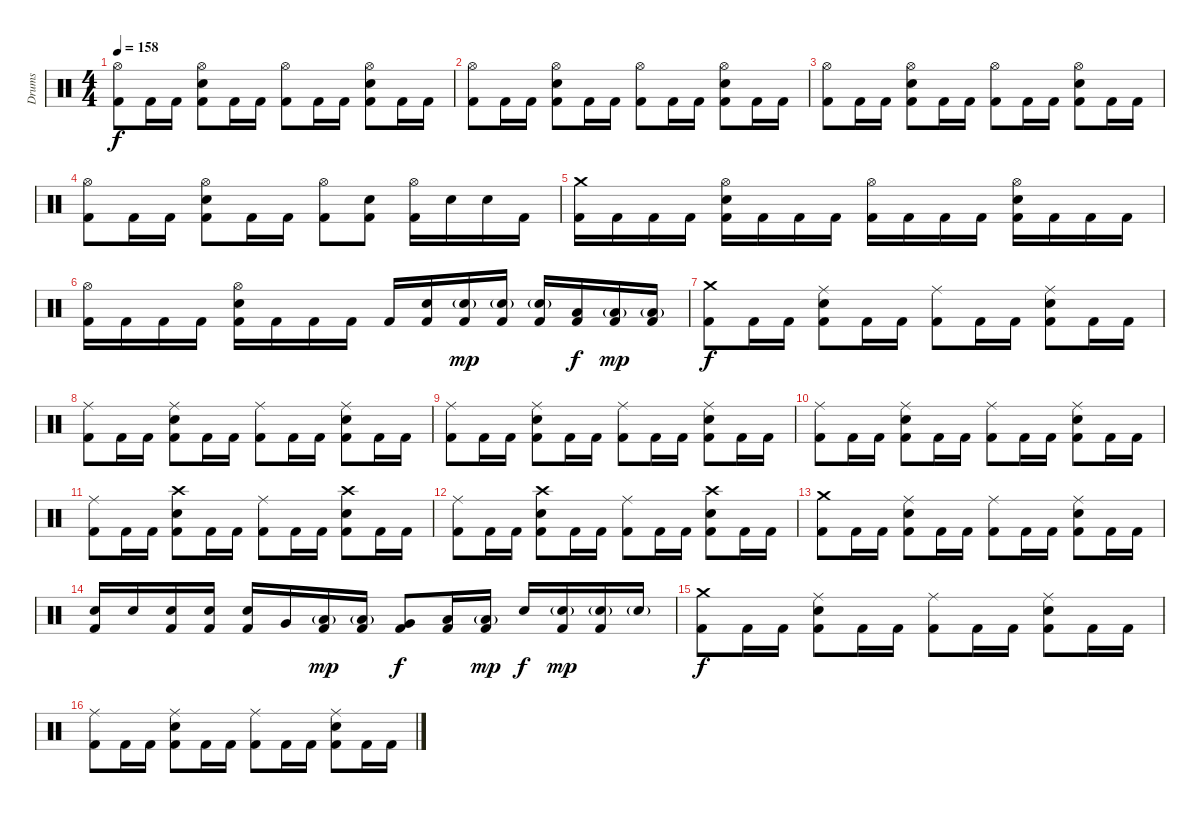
\track ("Drums" "Drums") {instrument percussion}
\staff {score}
\articulation defaults
\ts (4 4)
\tempo 158
\clef neutral
\ks c
("Hi-Hat (open)" "Kick (hit) 2").8{dy f} "Kick (hit) 2".16 "Kick (hit) 2".16 ("Hi-Hat (open)" "Electric Snare (hit)" "Kick (hit) 2").8 "Kick (hit) 2".16 "Kick (hit) 2".16 ("Hi-Hat (open)" "Kick (hit) 2").8 "Kick (hit) 2".16 "Kick (hit) 2".16 ("Hi-Hat (open)" "Electric Snare (hit)" "Kick (hit) 2").8 "Kick (hit) 2".16 "Kick (hit) 2".16 |
("Hi-Hat (open)" "Kick (hit) 2").8 "Kick (hit) 2".16 "Kick (hit) 2".16 ("Hi-Hat (open)" "Electric Snare (hit)" "Kick (hit) 2").8 "Kick (hit) 2".16 "Kick (hit) 2".16 ("Hi-Hat (open)" "Kick (hit) 2").8 "Kick (hit) 2".16 "Kick (hit) 2".16 ("Hi-Hat (open)" "Electric Snare (hit)" "Kick (hit) 2").8 "Kick (hit) 2".16 "Kick (hit) 2".16 |
("Hi-Hat (open)" "Kick (hit) 2").8 "Kick (hit) 2".16 "Kick (hit) 2".16 ("Hi-Hat (open)" "Electric Snare (hit)" "Kick (hit) 2").8 "Kick (hit) 2".16 "Kick (hit) 2".16 ("Hi-Hat (open)" "Kick (hit) 2").8 "Kick (hit) 2".16 "Kick (hit) 2".16 ("Hi-Hat (open)" "Electric Snare (hit)" "Kick (hit) 2").8 "Kick (hit) 2".16 "Kick (hit) 2".16 |
("Hi-Hat (open)" "Kick (hit) 2").8 "Kick (hit) 2".16 "Kick (hit) 2".16 ("Hi-Hat (open)" "Electric Snare (hit)" "Kick (hit) 2").8 "Kick (hit) 2".16 "Kick (hit) 2".16 ("Hi-Hat (open)" "Kick (hit) 2").8 ("Electric Snare (hit)" "Kick (hit) 2").8 ("Hi-Hat (open)" "Kick (hit) 2").16 "Electric Snare (hit)".16 "Electric Snare (hit)".16 "Kick (hit) 2".16 |
("Crash medium (hit)" "Kick (hit) 2").16 "Kick (hit) 2".16 "Kick (hit) 2".16 "Kick (hit) 2".16 ("Hi-Hat (open)" "Electric Snare (hit)" "Kick (hit) 2").16 "Kick (hit) 2".16 "Kick (hit) 2".16 "Kick (hit) 2".16 ("Hi-Hat (open)" "Kick (hit) 2").16 "Kick (hit) 2".16 "Kick (hit) 2".16 "Kick (hit) 2".16 ("Hi-Hat (open)" "Electric Snare (hit)" "Kick (hit) 2").16 "Kick (hit) 2".16 "Kick (hit) 2".16 "Kick (hit) 2".16 |
("Hi-Hat (open)" "Kick (hit) 2").16 "Kick (hit) 2".16 "Kick (hit) 2".16 "Kick (hit) 2".16 ("Hi-Hat (open)" "Electric Snare (hit)" "Kick (hit) 2").16 "Kick (hit) 2".16 "Kick (hit) 2".16 "Kick (hit) 2".16 "Kick (hit) 2".16 ("Electric Snare (hit)" "Kick (hit) 2").16 ("Electric Snare (hit)"{g} "Kick (hit) 2").16{dy mp} ("Electric Snare (hit)"{g} "Kick (hit) 2").16 ("Electric Snare (hit)"{g} "Kick (hit) 2").16 ("Low Tom (hit)" "Kick (hit) 2").16{dy f} ("Low Tom (hit)"{g} "Kick (hit) 2").16{dy mp} ("Low Tom (hit)"{g} "Kick (hit) 2").16 |
\section ("" "")
("Crash medium (hit)" "Kick (hit) 2").8{dy f} "Kick (hit) 2".16 "Kick (hit) 2".16 ("Ride (middle)" "Electric Snare (hit)" "Kick (hit) 2").8 "Kick (hit) 2".16 "Kick (hit) 2".16 ("Ride (middle)" "Kick (hit) 2").8 "Kick (hit) 2".16 "Kick (hit) 2".16 ("Ride (middle)" "Electric Snare (hit)" "Kick (hit) 2").8 "Kick (hit) 2".16 "Kick (hit) 2".16 |
("Ride (middle)" "Kick (hit) 2").8 "Kick (hit) 2".16 "Kick (hit) 2".16 ("Ride (middle)" "Electric Snare (hit)" "Kick (hit) 2").8 "Kick (hit) 2".16 "Kick (hit) 2".16 ("Ride (middle)" "Kick (hit) 2").8 "Kick (hit) 2".16 "Kick (hit) 2".16 ("Ride (middle)" "Electric Snare (hit)" "Kick (hit) 2").8 "Kick (hit) 2".16 "Kick (hit) 2".16 |
("Ride (middle)" "Kick (hit) 2").8 "Kick (hit) 2".16 "Kick (hit) 2".16 ("Ride (middle)" "Electric Snare (hit)" "Kick (hit) 2").8 "Kick (hit) 2".16 "Kick (hit) 2".16 ("Ride (middle)" "Kick (hit) 2").8 "Kick (hit) 2".16 "Kick (hit) 2".16 ("Ride (middle)" "Electric Snare (hit)" "Kick (hit) 2").8 "Kick (hit) 2".16 "Kick (hit) 2".16 |
("Ride (middle)" "Kick (hit) 2").8 "Kick (hit) 2".16 "Kick (hit) 2".16 ("Ride (middle)" "Electric Snare (hit)" "Kick (hit) 2").8 "Kick (hit) 2".16 "Kick (hit) 2".16 ("Ride (middle)" "Kick (hit) 2").8 "Kick (hit) 2".16 "Kick (hit) 2".16 ("Ride (middle)" "Electric Snare (hit)" "Kick (hit) 2").8 "Kick (hit) 2".16 "Kick (hit) 2".16 |
("Ride (middle)" "Kick (hit) 2").8 "Kick (hit) 2".16 "Kick (hit) 2".16 ("Crash high (hit)" "Electric Snare (hit)" "Kick (hit) 2").8 "Kick (hit) 2".16 "Kick (hit) 2".16 ("Ride (middle)" "Kick (hit) 2").8 "Kick (hit) 2".16 "Kick (hit) 2".16 ("Crash high (hit)" "Electric Snare (hit)" "Kick (hit) 2").8 "Kick (hit) 2".16 "Kick (hit) 2".16 |
("Ride (middle)" "Kick (hit) 2").8 "Kick (hit) 2".16 "Kick (hit) 2".16 ("Crash high (hit)" "Electric Snare (hit)" "Kick (hit) 2").8 "Kick (hit) 2".16 "Kick (hit) 2".16 ("Ride (middle)" "Kick (hit) 2").8 "Kick (hit) 2".16 "Kick (hit) 2".16 ("Crash high (hit)" "Electric Snare (hit)" "Kick (hit) 2").8 "Kick (hit) 2".16 "Kick (hit) 2".16 |
("Crash medium (hit)" "Kick (hit) 2").8 "Kick (hit) 2".16 "Kick (hit) 2".16 ("Ride (middle)" "Electric Snare (hit)" "Kick (hit) 2").8 "Kick (hit) 2".16 "Kick (hit) 2".16 ("Ride (middle)" "Kick (hit) 2").8 "Kick (hit) 2".16 "Kick (hit) 2".16 ("Ride (middle)" "Electric Snare (hit)" "Kick (hit) 2").8 "Kick (hit) 2".16 "Kick (hit) 2".16 |
("Electric Snare (hit)" "Kick (hit) 2").16 "Electric Snare (hit)".16 ("Electric Snare (hit)" "Kick (hit) 2").16 ("Electric Snare (hit)" "Kick (hit) 2").16 ("Electric Snare (hit)" "Kick (hit) 2").16 "Very Low Tom (hit)".16 ("Low Tom (hit)"{g} "Kick (hit) 2").16{dy mp} ("Low Tom (hit)"{g} "Kick (hit) 2").16 ("Very Low Tom (hit)" "Kick (hit) 2").8{dy f} ("Low Tom (hit)" "Kick (hit) 2").16 ("Low Tom (hit)"{g} "Kick (hit) 2").16{dy mp} "Electric Snare (hit)".16{dy f} ("Electric Snare (hit)"{g} "Kick (hit) 2").16{dy mp} ("Electric Snare (hit)"{g} "Kick (hit) 2").16 "Electric Snare (hit)"{g}.16 |
\section ("" "")
("Crash medium (hit)" "Kick (hit) 2").8{dy f} "Kick (hit) 2".16 "Kick (hit) 2".16 ("Ride (middle)" "Electric Snare (hit)" "Kick (hit) 2").8 "Kick (hit) 2".16 "Kick (hit) 2".16 ("Ride (middle)" "Kick (hit) 2").8 "Kick (hit) 2".16 "Kick (hit) 2".16 ("Ride (middle)" "Electric Snare (hit)" "Kick (hit) 2").8 "Kick (hit) 2".16 "Kick (hit) 2".16 |
("Ride (middle)" "Kick (hit) 2").8 "Kick (hit) 2".16 "Kick (hit) 2".16 ("Ride (middle)" "Electric Snare (hit)" "Kick (hit) 2").8 "Kick (hit) 2".16 "Kick (hit) 2".16 ("Ride (middle)" "Kick (hit) 2").8 "Kick (hit) 2".16 "Kick (hit) 2".16 ("Ride (middle)" "Electric Snare (hit)" "Kick (hit) 2").8 "Kick (hit) 2".16 "Kick (hit) 2".16
